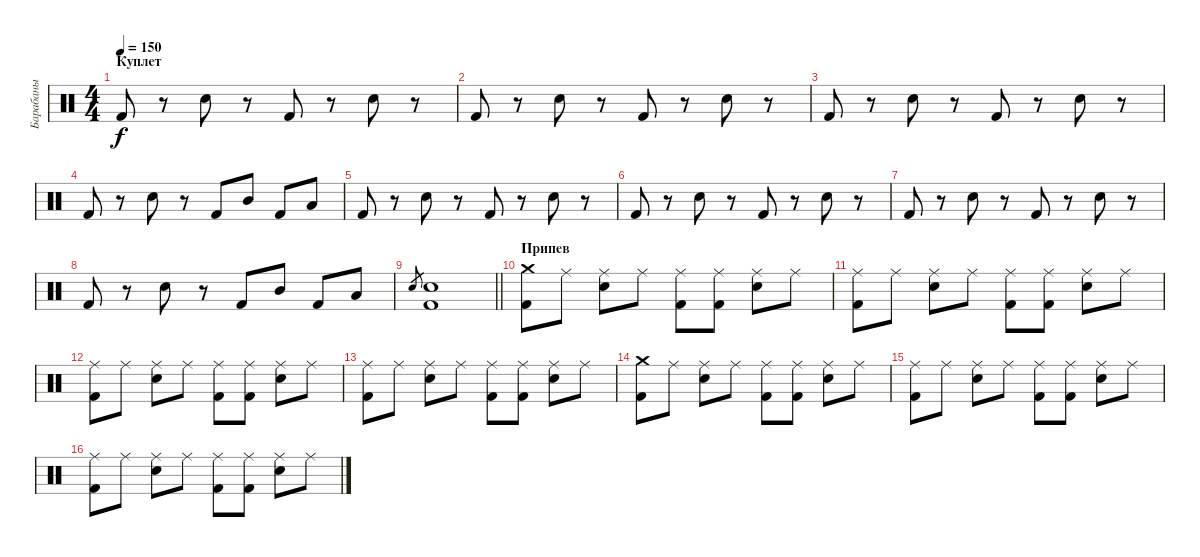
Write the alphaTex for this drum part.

\track ("Барабаны" "Барабаны") {instrument percussion}
\staff {score}
\articulation defaults
\ts (4 4)
\section ("" "Куплет")
\tempo 150
\clef neutral
\ks c "Kick (hit) 2".8{dy f}
r.8 "Electric Snare (hit)".8 r.8 "Kick (hit) 2".8 r.8 "Electric Snare (hit)".8 r.8 |
"Kick (hit) 2".8 r.8 "Electric Snare (hit)".8 r.8 "Kick (hit) 2".8 r.8 "Electric Snare (hit)".8 r.8 |
"Kick (hit) 2".8 r.8 "Electric Snare (hit)".8 r.8 "Kick (hit) 2".8 r.8 "Electric Snare (hit)".8 r.8 |
"Kick (hit) 2".8 r.8 "Electric Snare (hit)".8 r.8 "Kick (hit) 2".8 "Mid Tom (hit)".8 "Kick (hit) 2".8 "Low Tom (hit)".8 |
"Kick (hit) 2".8 r.8 "Electric Snare (hit)".8 r.8 "Kick (hit) 2".8 r.8 "Electric Snare (hit)".8 r.8 |
"Kick (hit) 2".8 r.8 "Electric Snare (hit)".8 r.8 "Kick (hit) 2".8 r.8 "Electric Snare (hit)".8 r.8 |
"Kick (hit) 2".8 r.8 "Electric Snare (hit)".8 r.8 "Kick (hit) 2".8 r.8 "Electric Snare (hit)".8 r.8 |
"Kick (hit) 2".8 r.8 "Electric Snare (hit)".8 r.8 "Kick (hit) 2".8 "Mid Tom (hit)".8 "Kick (hit) 2".8 "Low Tom (hit)".8 |
\barLineRight lightlight "Electric Snare (hit)".8{gr}
("Electric Snare (hit)" "Kick (hit) 2").1 |
\section ("" "Припев")
("Crash medium (hit)" "Kick (hit) 2").8 "Ride (middle)".8 ("Ride (middle)" "Electric Snare (hit)").8 "Ride (middle)".8 ("Ride (middle)" "Kick (hit) 2").8 ("Ride (middle)" "Kick (hit) 2").8 ("Ride (middle)" "Electric Snare (hit)").8 "Ride (middle)".8 |
("Ride (middle)" "Kick (hit) 2").8 "Ride (middle)".8 ("Ride (middle)" "Electric Snare (hit)").8 "Ride (middle)".8 ("Ride (middle)" "Kick (hit) 2").8 ("Ride (middle)" "Kick (hit) 2").8 ("Ride (middle)" "Electric Snare (hit)").8 "Ride (middle)".8 |
("Ride (middle)" "Kick (hit) 2").8 "Ride (middle)".8 ("Ride (middle)" "Electric Snare (hit)").8 "Ride (middle)".8 ("Ride (middle)" "Kick (hit) 2").8 ("Ride (middle)" "Kick (hit) 2").8 ("Ride (middle)" "Electric Snare (hit)").8 "Ride (middle)".8 |
("Ride (middle)" "Kick (hit) 2").8 "Ride (middle)".8 ("Ride (middle)" "Electric Snare (hit)").8 "Ride (middle)".8 ("Ride (middle)" "Kick (hit) 2").8 ("Ride (middle)" "Kick (hit) 2").8 ("Ride (middle)" "Electric Snare (hit)").8 "Ride (middle)".8 |
("Crash medium (hit)" "Kick (hit) 2").8 "Ride (middle)".8 ("Ride (middle)" "Electric Snare (hit)").8 "Ride (middle)".8 ("Ride (middle)" "Kick (hit) 2").8 ("Ride (middle)" "Kick (hit) 2").8 ("Ride (middle)" "Electric Snare (hit)").8 "Ride (middle)".8 |
("Ride (middle)" "Kick (hit) 2").8 "Ride (middle)".8 ("Ride (middle)" "Electric Snare (hit)").8 "Ride (middle)".8 ("Ride (middle)" "Kick (hit) 2").8 ("Ride (middle)" "Kick (hit) 2").8 ("Ride (middle)" "Electric Snare (hit)").8 "Ride (middle)".8 |
("Ride (middle)" "Kick (hit) 2").8 "Ride (middle)".8 ("Ride (middle)" "Electric Snare (hit)").8 "Ride (middle)".8 ("Ride (middle)" "Kick (hit) 2").8 ("Ride (middle)" "Kick (hit) 2").8 ("Ride (middle)" "Electric Snare (hit)").8 "Ride (middle)".8
